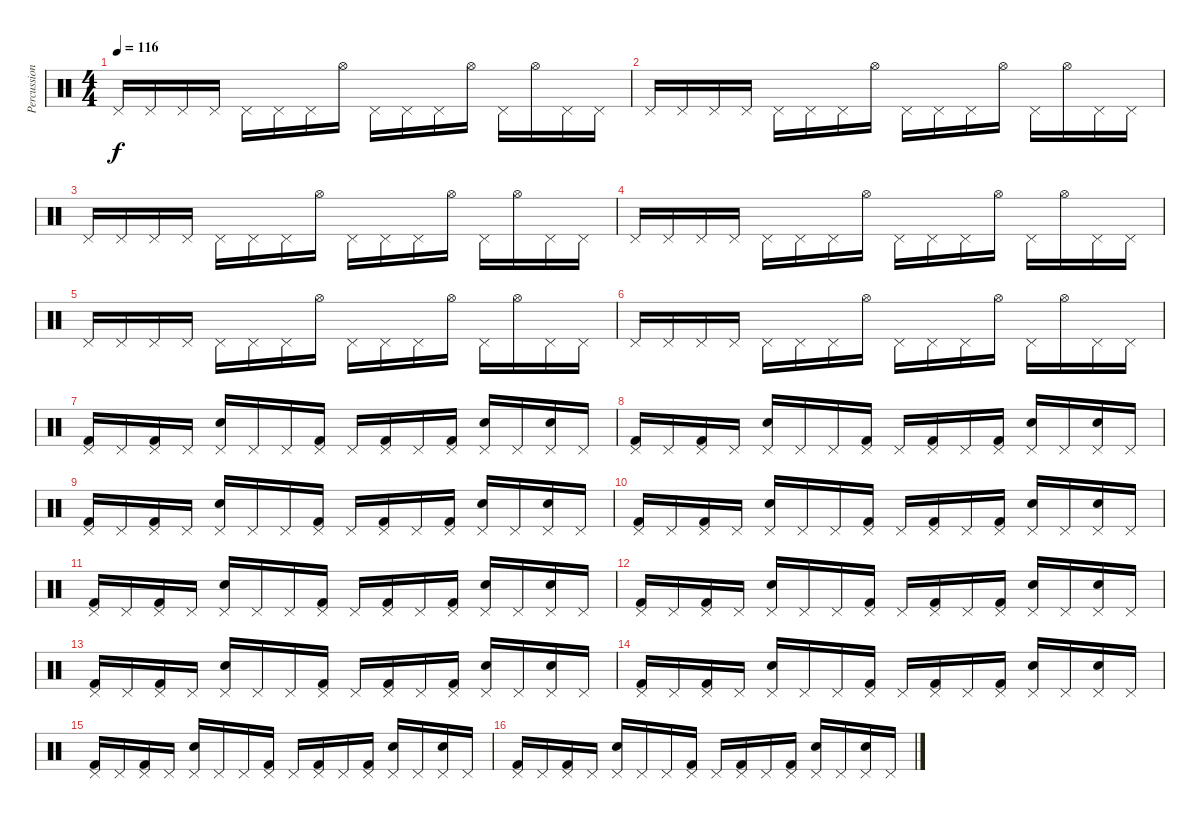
\track ("Percussions" "Percussion") {instrument percussion}
\staff {score}
\articulation defaults
\ts (4 4)
\tempo 116
\clef neutral
\ks c "Pedal Hi-Hat (hit)".16{dy f} "Pedal Hi-Hat (hit)".16 "Pedal Hi-Hat (hit)".16 "Pedal Hi-Hat (hit)".16 "Pedal Hi-Hat (hit)".16 "Pedal Hi-Hat (hit)".16 "Pedal Hi-Hat (hit)".16 "Hi-Hat (open)".16 "Pedal Hi-Hat (hit)".16 "Pedal Hi-Hat (hit)".16 "Pedal Hi-Hat (hit)".16 "Hi-Hat (open)".16 "Pedal Hi-Hat (hit)".16 "Hi-Hat (open)".16 "Pedal Hi-Hat (hit)".16 "Pedal Hi-Hat (hit)".16
|
"Pedal Hi-Hat (hit)".16 "Pedal Hi-Hat (hit)".16 "Pedal Hi-Hat (hit)".16 "Pedal Hi-Hat (hit)".16 "Pedal Hi-Hat (hit)".16 "Pedal Hi-Hat (hit)".16 "Pedal Hi-Hat (hit)".16 "Hi-Hat (open)".16 "Pedal Hi-Hat (hit)".16 "Pedal Hi-Hat (hit)".16 "Pedal Hi-Hat (hit)".16 "Hi-Hat (open)".16 "Pedal Hi-Hat (hit)".16 "Hi-Hat (open)".16 "Pedal Hi-Hat (hit)".16 "Pedal Hi-Hat (hit)".16 |
"Pedal Hi-Hat (hit)".16 "Pedal Hi-Hat (hit)".16 "Pedal Hi-Hat (hit)".16 "Pedal Hi-Hat (hit)".16 "Pedal Hi-Hat (hit)".16 "Pedal Hi-Hat (hit)".16 "Pedal Hi-Hat (hit)".16 "Hi-Hat (open)".16 "Pedal Hi-Hat (hit)".16 "Pedal Hi-Hat (hit)".16 "Pedal Hi-Hat (hit)".16 "Hi-Hat (open)".16 "Pedal Hi-Hat (hit)".16 "Hi-Hat (open)".16 "Pedal Hi-Hat (hit)".16 "Pedal Hi-Hat (hit)".16 |
"Pedal Hi-Hat (hit)".16 "Pedal Hi-Hat (hit)".16 "Pedal Hi-Hat (hit)".16 "Pedal Hi-Hat (hit)".16 "Pedal Hi-Hat (hit)".16 "Pedal Hi-Hat (hit)".16 "Pedal Hi-Hat (hit)".16 "Hi-Hat (open)".16 "Pedal Hi-Hat (hit)".16 "Pedal Hi-Hat (hit)".16 "Pedal Hi-Hat (hit)".16 "Hi-Hat (open)".16 "Pedal Hi-Hat (hit)".16 "Hi-Hat (open)".16 "Pedal Hi-Hat (hit)".16 "Pedal Hi-Hat (hit)".16 |
"Pedal Hi-Hat (hit)".16 "Pedal Hi-Hat (hit)".16 "Pedal Hi-Hat (hit)".16 "Pedal Hi-Hat (hit)".16 "Pedal Hi-Hat (hit)".16 "Pedal Hi-Hat (hit)".16 "Pedal Hi-Hat (hit)".16 "Hi-Hat (open)".16 "Pedal Hi-Hat (hit)".16 "Pedal Hi-Hat (hit)".16 "Pedal Hi-Hat (hit)".16 "Hi-Hat (open)".16 "Pedal Hi-Hat (hit)".16 "Hi-Hat (open)".16 "Pedal Hi-Hat (hit)".16 "Pedal Hi-Hat (hit)".16 |
"Pedal Hi-Hat (hit)".16 "Pedal Hi-Hat (hit)".16 "Pedal Hi-Hat (hit)".16 "Pedal Hi-Hat (hit)".16 "Pedal Hi-Hat (hit)".16 "Pedal Hi-Hat (hit)".16 "Pedal Hi-Hat (hit)".16 "Hi-Hat (open)".16 "Pedal Hi-Hat (hit)".16 "Pedal Hi-Hat (hit)".16 "Pedal Hi-Hat (hit)".16 "Hi-Hat (open)".16 "Pedal Hi-Hat (hit)".16 "Hi-Hat (open)".16 "Pedal Hi-Hat (hit)".16 "Pedal Hi-Hat (hit)".16 |
("Pedal Hi-Hat (hit)" "Kick (hit) 2").16 "Pedal Hi-Hat (hit)".16 ("Pedal Hi-Hat (hit)" "Kick (hit) 2").16 "Pedal Hi-Hat (hit)".16 ("Pedal Hi-Hat (hit)" "Snare (hit) 2").16 "Pedal Hi-Hat (hit)".16 "Pedal Hi-Hat (hit)".16 ("Pedal Hi-Hat (hit)" "Kick (hit) 2").16 "Pedal Hi-Hat (hit)".16 ("Pedal Hi-Hat (hit)" "Kick (hit) 2").16 "Pedal Hi-Hat (hit)".16 ("Pedal Hi-Hat (hit)" "Kick (hit) 2").16 ("Pedal Hi-Hat (hit)" "Snare (hit) 2").16 "Pedal Hi-Hat (hit)".16 ("Pedal Hi-Hat (hit)" "Snare (hit) 2").16 "Pedal Hi-Hat (hit)".16 |
("Pedal Hi-Hat (hit)" "Kick (hit) 2").16 "Pedal Hi-Hat (hit)".16 ("Pedal Hi-Hat (hit)" "Kick (hit) 2").16 "Pedal Hi-Hat (hit)".16 ("Pedal Hi-Hat (hit)" "Snare (hit) 2").16 "Pedal Hi-Hat (hit)".16 "Pedal Hi-Hat (hit)".16 ("Pedal Hi-Hat (hit)" "Kick (hit) 2").16 "Pedal Hi-Hat (hit)".16 ("Pedal Hi-Hat (hit)" "Kick (hit) 2").16 "Pedal Hi-Hat (hit)".16 ("Pedal Hi-Hat (hit)" "Kick (hit) 2").16 ("Pedal Hi-Hat (hit)" "Snare (hit) 2").16 "Pedal Hi-Hat (hit)".16 ("Pedal Hi-Hat (hit)" "Snare (hit) 2").16 "Pedal Hi-Hat (hit)".16 |
("Pedal Hi-Hat (hit)" "Kick (hit) 2").16 "Pedal Hi-Hat (hit)".16 ("Pedal Hi-Hat (hit)" "Kick (hit) 2").16 "Pedal Hi-Hat (hit)".16 ("Pedal Hi-Hat (hit)" "Snare (hit) 2").16 "Pedal Hi-Hat (hit)".16 "Pedal Hi-Hat (hit)".16 ("Pedal Hi-Hat (hit)" "Kick (hit) 2").16 "Pedal Hi-Hat (hit)".16 ("Pedal Hi-Hat (hit)" "Kick (hit) 2").16 "Pedal Hi-Hat (hit)".16 ("Pedal Hi-Hat (hit)" "Kick (hit) 2").16 ("Pedal Hi-Hat (hit)" "Snare (hit) 2").16 "Pedal Hi-Hat (hit)".16 ("Pedal Hi-Hat (hit)" "Snare (hit) 2").16 "Pedal Hi-Hat (hit)".16 |
("Pedal Hi-Hat (hit)" "Kick (hit) 2").16 "Pedal Hi-Hat (hit)".16 ("Pedal Hi-Hat (hit)" "Kick (hit) 2").16 "Pedal Hi-Hat (hit)".16 ("Pedal Hi-Hat (hit)" "Snare (hit) 2").16 "Pedal Hi-Hat (hit)".16 "Pedal Hi-Hat (hit)".16 ("Pedal Hi-Hat (hit)" "Kick (hit) 2").16 "Pedal Hi-Hat (hit)".16 ("Pedal Hi-Hat (hit)" "Kick (hit) 2").16 "Pedal Hi-Hat (hit)".16 ("Pedal Hi-Hat (hit)" "Kick (hit) 2").16 ("Pedal Hi-Hat (hit)" "Snare (hit) 2").16 "Pedal Hi-Hat (hit)".16 ("Pedal Hi-Hat (hit)" "Snare (hit) 2").16 "Pedal Hi-Hat (hit)".16 |
("Pedal Hi-Hat (hit)" "Kick (hit) 2").16 "Pedal Hi-Hat (hit)".16 ("Pedal Hi-Hat (hit)" "Kick (hit) 2").16 "Pedal Hi-Hat (hit)".16 ("Pedal Hi-Hat (hit)" "Snare (hit) 2").16 "Pedal Hi-Hat (hit)".16 "Pedal Hi-Hat (hit)".16 ("Pedal Hi-Hat (hit)" "Kick (hit) 2").16 "Pedal Hi-Hat (hit)".16 ("Pedal Hi-Hat (hit)" "Kick (hit) 2").16 "Pedal Hi-Hat (hit)".16 ("Pedal Hi-Hat (hit)" "Kick (hit) 2").16 ("Pedal Hi-Hat (hit)" "Snare (hit) 2").16 "Pedal Hi-Hat (hit)".16 ("Pedal Hi-Hat (hit)" "Snare (hit) 2").16 "Pedal Hi-Hat (hit)".16 |
("Pedal Hi-Hat (hit)" "Kick (hit) 2").16 "Pedal Hi-Hat (hit)".16 ("Pedal Hi-Hat (hit)" "Kick (hit) 2").16 "Pedal Hi-Hat (hit)".16 ("Pedal Hi-Hat (hit)" "Snare (hit) 2").16 "Pedal Hi-Hat (hit)".16 "Pedal Hi-Hat (hit)".16 ("Pedal Hi-Hat (hit)" "Kick (hit) 2").16 "Pedal Hi-Hat (hit)".16 ("Pedal Hi-Hat (hit)" "Kick (hit) 2").16 "Pedal Hi-Hat (hit)".16 ("Pedal Hi-Hat (hit)" "Kick (hit) 2").16 ("Pedal Hi-Hat (hit)" "Snare (hit) 2").16 "Pedal Hi-Hat (hit)".16 ("Pedal Hi-Hat (hit)" "Snare (hit) 2").16 "Pedal Hi-Hat (hit)".16 |
("Pedal Hi-Hat (hit)" "Kick (hit) 2").16 "Pedal Hi-Hat (hit)".16 ("Pedal Hi-Hat (hit)" "Kick (hit) 2").16 "Pedal Hi-Hat (hit)".16 ("Pedal Hi-Hat (hit)" "Snare (hit) 2").16 "Pedal Hi-Hat (hit)".16 "Pedal Hi-Hat (hit)".16 ("Pedal Hi-Hat (hit)" "Kick (hit) 2").16 "Pedal Hi-Hat (hit)".16 ("Pedal Hi-Hat (hit)" "Kick (hit) 2").16 "Pedal Hi-Hat (hit)".16 ("Pedal Hi-Hat (hit)" "Kick (hit) 2").16 ("Pedal Hi-Hat (hit)" "Snare (hit) 2").16 "Pedal Hi-Hat (hit)".16 ("Pedal Hi-Hat (hit)" "Snare (hit) 2").16 "Pedal Hi-Hat (hit)".16 |
("Pedal Hi-Hat (hit)" "Kick (hit) 2").16 "Pedal Hi-Hat (hit)".16 ("Pedal Hi-Hat (hit)" "Kick (hit) 2").16 "Pedal Hi-Hat (hit)".16 ("Pedal Hi-Hat (hit)" "Snare (hit) 2").16 "Pedal Hi-Hat (hit)".16 "Pedal Hi-Hat (hit)".16 ("Pedal Hi-Hat (hit)" "Kick (hit) 2").16 "Pedal Hi-Hat (hit)".16 ("Pedal Hi-Hat (hit)" "Kick (hit) 2").16 "Pedal Hi-Hat (hit)".16 ("Pedal Hi-Hat (hit)" "Kick (hit) 2").16 ("Pedal Hi-Hat (hit)" "Snare (hit) 2").16 "Pedal Hi-Hat (hit)".16 ("Pedal Hi-Hat (hit)" "Snare (hit) 2").16 "Pedal Hi-Hat (hit)".16 |
("Pedal Hi-Hat (hit)" "Kick (hit) 2").16 "Pedal Hi-Hat (hit)".16 ("Pedal Hi-Hat (hit)" "Kick (hit) 2").16 "Pedal Hi-Hat (hit)".16 ("Pedal Hi-Hat (hit)" "Snare (hit) 2").16 "Pedal Hi-Hat (hit)".16 "Pedal Hi-Hat (hit)".16 ("Pedal Hi-Hat (hit)" "Kick (hit) 2").16 "Pedal Hi-Hat (hit)".16 ("Pedal Hi-Hat (hit)" "Kick (hit) 2").16 "Pedal Hi-Hat (hit)".16 ("Pedal Hi-Hat (hit)" "Kick (hit) 2").16 ("Pedal Hi-Hat (hit)" "Snare (hit) 2").16 "Pedal Hi-Hat (hit)".16 ("Pedal Hi-Hat (hit)" "Snare (hit) 2").16 "Pedal Hi-Hat (hit)".16 |
("Pedal Hi-Hat (hit)" "Kick (hit) 2").16 "Pedal Hi-Hat (hit)".16 ("Pedal Hi-Hat (hit)" "Kick (hit) 2").16 "Pedal Hi-Hat (hit)".16 ("Pedal Hi-Hat (hit)" "Snare (hit) 2").16 "Pedal Hi-Hat (hit)".16 "Pedal Hi-Hat (hit)".16 ("Pedal Hi-Hat (hit)" "Kick (hit) 2").16 "Pedal Hi-Hat (hit)".16 ("Pedal Hi-Hat (hit)" "Kick (hit) 2").16 "Pedal Hi-Hat (hit)".16 ("Pedal Hi-Hat (hit)" "Kick (hit) 2").16 ("Pedal Hi-Hat (hit)" "Snare (hit) 2").16 "Pedal Hi-Hat (hit)".16 ("Pedal Hi-Hat (hit)" "Snare (hit) 2").16 "Pedal Hi-Hat (hit)".16
